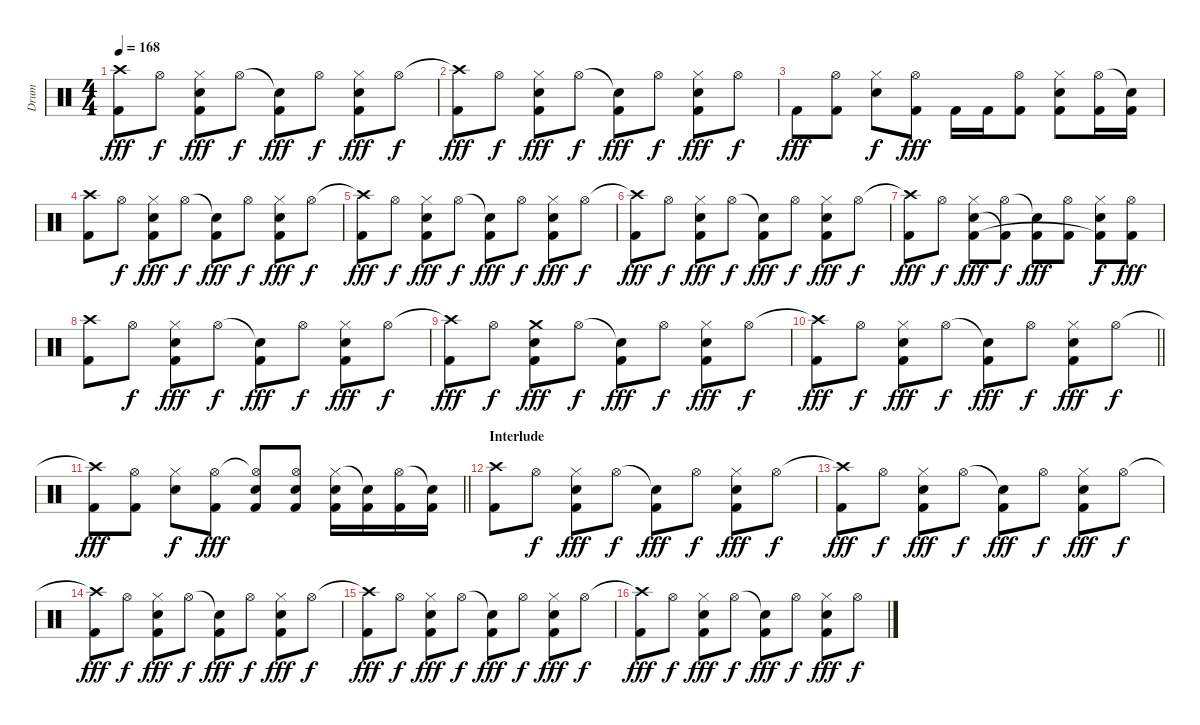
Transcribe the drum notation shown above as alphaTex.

\track ("Drum" "Drum") {instrument percussion}
\staff {score}
\articulation defaults
\ts (4 4)
\tempo 168
\clef neutral
\ks c
("Crash high (hit)"{t} "Kick (hit) 2").8{dy fff} "Hi-Hat (open)".8{dy f} ("Hi-Hat (closed)" "Snare (hit) 2" "Kick (hit) 2").8{dy fff} "Hi-Hat (open)".8{dy f} ("Snare (hit)"{t} "Kick (hit) 2").8{dy fff} "Hi-Hat (open)".8{dy f} ("Hi-Hat (closed)" "Snare (hit) 2" "Kick (hit) 2").8{dy fff} "Hi-Hat (open)".8{dy f} |
("Crash high (hit)"{t} "Kick (hit) 2").8{dy fff} "Hi-Hat (open)".8{dy f} ("Hi-Hat (closed)" "Snare (hit) 2" "Kick (hit) 2").8{dy fff} "Hi-Hat (open)".8{dy f} ("Snare (hit)"{t} "Kick (hit) 2").8{dy fff} "Hi-Hat (open)".8{dy f} ("Hi-Hat (closed)" "Snare (hit) 2" "Kick (hit) 2").8{dy fff} "Hi-Hat (open)".8{dy f} |
"Kick (hit) 2".8{dy fff} ("Hi-Hat (open)" "Kick (hit) 2").8 ("Hi-Hat (closed)" "Snare (hit) 2").8{dy f} ("Hi-Hat (open)" "Kick (hit) 2").8{dy fff} "Kick (hit) 2".16 "Kick (hit) 2".16 ("Hi-Hat (open)" "Kick (hit) 2").8 ("Hi-Hat (closed)" "Snare (hit) 2" "Kick (hit) 2").8 ("Hi-Hat (open)" "Kick (hit) 2").16 ("Snare (hit)"{t} "Kick (hit) 2").16 |
("Crash high (hit)" "Kick (hit) 2").8 "Hi-Hat (open)".8{dy f} ("Hi-Hat (closed)" "Snare (hit) 2" "Kick (hit) 2").8{dy fff} "Hi-Hat (open)".8{dy f} ("Snare (hit)"{t} "Kick (hit) 2").8{dy fff} "Hi-Hat (open)".8{dy f} ("Hi-Hat (closed)" "Snare (hit) 2" "Kick (hit) 2").8{dy fff} "Hi-Hat (open)".8{dy f} |
("Crash high (hit)"{t} "Kick (hit) 2").8{dy fff} "Hi-Hat (open)".8{dy f} ("Hi-Hat (closed)" "Snare (hit) 2" "Kick (hit) 2").8{dy fff} "Hi-Hat (open)".8{dy f} ("Snare (hit)"{t} "Kick (hit) 2").8{dy fff} "Hi-Hat (open)".8{dy f} ("Hi-Hat (closed)" "Snare (hit) 2" "Kick (hit) 2").8{dy fff} "Hi-Hat (open)".8{dy f} |
("Crash high (hit)"{t} "Kick (hit) 2").8{dy fff} "Hi-Hat (open)".8{dy f} ("Hi-Hat (closed)" "Snare (hit) 2" "Kick (hit) 2").8{dy fff} "Hi-Hat (open)".8{dy f} ("Snare (hit)"{t} "Kick (hit) 2").8{dy fff} "Hi-Hat (open)".8{dy f} ("Hi-Hat (closed)" "Snare (hit) 2" "Kick (hit) 2").8{dy fff} "Hi-Hat (open)".8{dy f} |
("Crash high (hit)"{t} "Kick (hit) 2").8{dy fff} "Hi-Hat (open)".8{dy f} ("Hi-Hat (closed)" "Snare (hit) 2" "Kick (hit) 2").8{dy fff} ("Hi-Hat (open)" "Kick (hit) 2"{t}).8{dy f} ("Snare (hit)"{t} "Kick (hit) 2").8{dy fff} ("Hi-Hat (open)" "Kick (hit) 2").8 ("Hi-Hat (closed)" "Snare (hit) 2" "Kick (hit) 2"{t}).8{dy f} ("Hi-Hat (open)" "Kick (hit) 2").8{dy fff} |
("Crash high (hit)" "Kick (hit) 2").8 "Hi-Hat (open)".8{dy f} ("Hi-Hat (closed)" "Snare (hit) 2" "Kick (hit) 2").8{dy fff} "Hi-Hat (open)".8{dy f} ("Snare (hit)"{t} "Kick (hit) 2").8{dy fff} "Hi-Hat (open)".8{dy f} ("Hi-Hat (closed)" "Snare (hit) 2" "Kick (hit) 2").8{dy fff} "Hi-Hat (open)".8{dy f} |
("Crash high (hit)"{t} "Kick (hit) 2").8{dy fff} "Hi-Hat (open)".8{dy f} ("Crash medium (hit)" "Snare (hit) 2" "Kick (hit) 2").8{dy fff} "Hi-Hat (open)".8{dy f} ("Snare (hit)"{t} "Kick (hit) 2").8{dy fff} "Hi-Hat (open)".8{dy f} ("Hi-Hat (closed)" "Snare (hit) 2" "Kick (hit) 2").8{dy fff} "Hi-Hat (open)".8{dy f} |
\barLineRight lightlight
("Crash high (hit)"{t} "Kick (hit) 2").8{dy fff} "Hi-Hat (open)".8{dy f} ("Hi-Hat (closed)" "Snare (hit) 2" "Kick (hit) 2").8{dy fff} "Hi-Hat (open)".8{dy f} ("Snare (hit)"{t} "Kick (hit) 2").8{dy fff} "Hi-Hat (open)".8{dy f} ("Hi-Hat (closed)" "Snare (hit) 2" "Kick (hit) 2").8{dy fff} "Hi-Hat (open)".8{dy f} |
\section ("" "")
\barLineRight lightlight
("Crash high (hit)"{t} "Kick (hit) 2").8{dy fff} ("Hi-Hat (open)" "Kick (hit) 2").8 ("Hi-Hat (closed)" "Snare (hit) 2").8{dy f} ("Hi-Hat (open)" "Kick (hit) 2").8{dy fff} ("Hi-Hat (open)"{t} "Snare (hit) 2" "Kick (hit) 2").8 ("Hi-Hat (open)" "Snare (hit) 2" "Kick (hit) 2").8 ("Hi-Hat (closed)" "Snare (hit) 2" "Kick (hit) 2").16 ("Snare (hit)"{t} "Kick (hit) 2").16 ("Hi-Hat (open)" "Kick (hit) 2").16 ("Snare (hit)"{t} "Kick (hit) 2").16 |
\section ("" "Interlude")
("Crash high (hit)" "Kick (hit) 2").8 "Hi-Hat (open)".8{dy f} ("Hi-Hat (closed)" "Snare (hit) 2" "Kick (hit) 2").8{dy fff} "Hi-Hat (open)".8{dy f} ("Snare (hit)"{t} "Kick (hit) 2").8{dy fff} "Hi-Hat (open)".8{dy f} ("Hi-Hat (closed)" "Snare (hit) 2" "Kick (hit) 2").8{dy fff} "Hi-Hat (open)".8{dy f} |
("Crash high (hit)"{t} "Kick (hit) 2").8{dy fff} "Hi-Hat (open)".8{dy f} ("Hi-Hat (closed)" "Snare (hit) 2" "Kick (hit) 2").8{dy fff} "Hi-Hat (open)".8{dy f} ("Snare (hit)"{t} "Kick (hit) 2").8{dy fff} "Hi-Hat (open)".8{dy f} ("Hi-Hat (closed)" "Snare (hit) 2" "Kick (hit) 2").8{dy fff} "Hi-Hat (open)".8{dy f} |
("Crash high (hit)"{t} "Kick (hit) 2").8{dy fff} "Hi-Hat (open)".8{dy f} ("Hi-Hat (closed)" "Snare (hit) 2" "Kick (hit) 2").8{dy fff} "Hi-Hat (open)".8{dy f} ("Snare (hit)"{t} "Kick (hit) 2").8{dy fff} "Hi-Hat (open)".8{dy f} ("Hi-Hat (closed)" "Snare (hit) 2" "Kick (hit) 2").8{dy fff} "Hi-Hat (open)".8{dy f} |
("Crash high (hit)"{t} "Kick (hit) 2").8{dy fff} "Hi-Hat (open)".8{dy f} ("Hi-Hat (closed)" "Snare (hit) 2" "Kick (hit) 2").8{dy fff} "Hi-Hat (open)".8{dy f} ("Snare (hit)"{t} "Kick (hit) 2").8{dy fff} "Hi-Hat (open)".8{dy f} ("Hi-Hat (closed)" "Snare (hit) 2" "Kick (hit) 2").8{dy fff} "Hi-Hat (open)".8{dy f} |
("Crash high (hit)"{t} "Kick (hit) 2").8{dy fff} "Hi-Hat (open)".8{dy f} ("Hi-Hat (closed)" "Snare (hit) 2" "Kick (hit) 2").8{dy fff} "Hi-Hat (open)".8{dy f} ("Snare (hit)"{t} "Kick (hit) 2").8{dy fff} "Hi-Hat (open)".8{dy f} ("Hi-Hat (closed)" "Snare (hit) 2" "Kick (hit) 2").8{dy fff} "Hi-Hat (open)".8{dy f}
